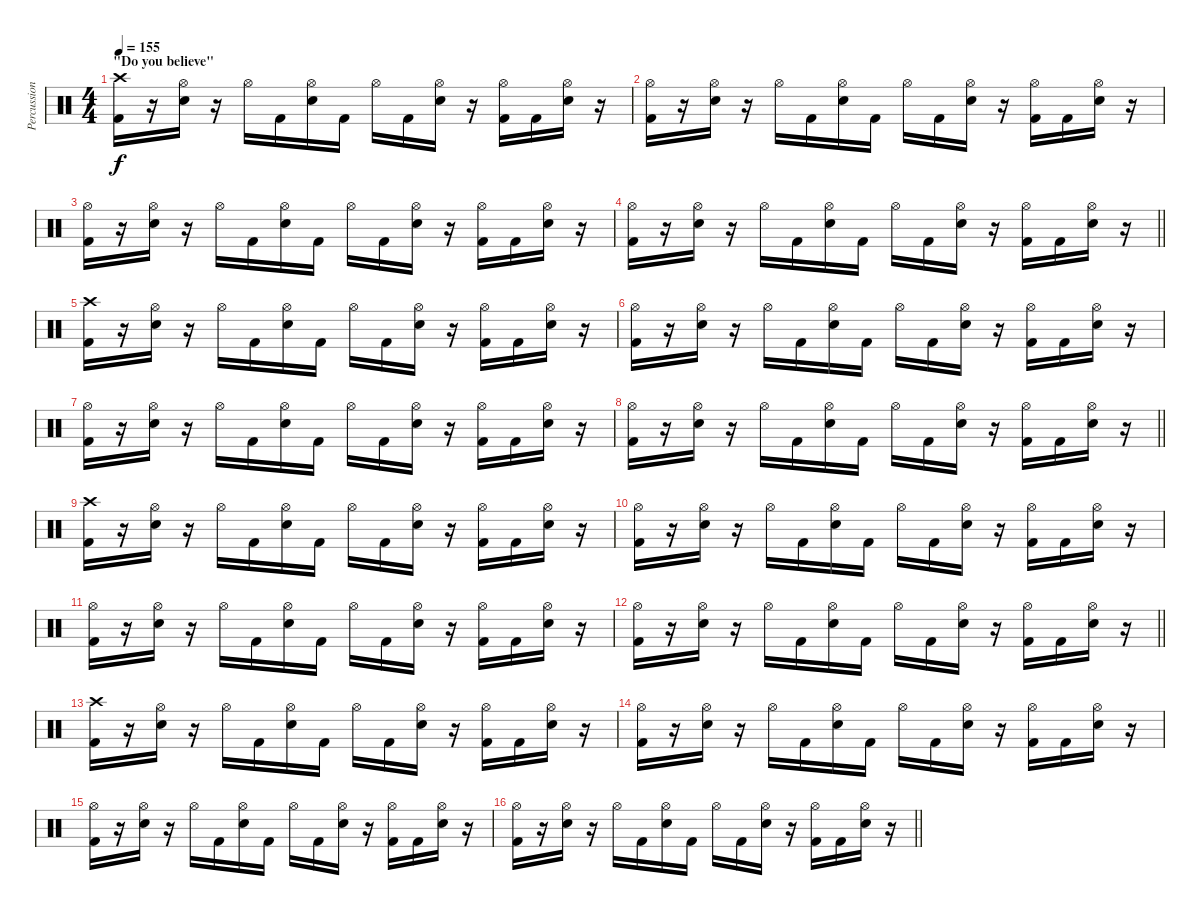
\track ("Percussion" "Percussion") {instrument percussion}
\staff {score}
\articulation defaults
\ts (4 4)
\section ("" "\"Do you believe\"")
\tempo 155
\clef neutral
\ks c
("Crash high (hit)" "Kick (hit) 2").16{dy f} r.16 ("Hi-Hat (open)" "Electric Snare (hit)").16 r.16 "Hi-Hat (open)".16 "Kick (hit) 2".16 ("Hi-Hat (open)" "Electric Snare (hit)").16 "Kick (hit) 2".16 "Hi-Hat (open)".16 "Kick (hit) 2".16 ("Hi-Hat (open)" "Electric Snare (hit)").16 r.16 ("Hi-Hat (open)" "Kick (hit) 2").16 "Kick (hit) 2".16 ("Hi-Hat (open)" "Electric Snare (hit)").16 r.16 |
("Hi-Hat (open)" "Kick (hit) 2").16 r.16 ("Hi-Hat (open)" "Electric Snare (hit)").16 r.16 "Hi-Hat (open)".16 "Kick (hit) 2".16 ("Hi-Hat (open)" "Electric Snare (hit)").16 "Kick (hit) 2".16 "Hi-Hat (open)".16 "Kick (hit) 2".16 ("Hi-Hat (open)" "Electric Snare (hit)").16 r.16 ("Hi-Hat (open)" "Kick (hit) 2").16 "Kick (hit) 2".16 ("Hi-Hat (open)" "Electric Snare (hit)").16 r.16 |
("Hi-Hat (open)" "Kick (hit) 2").16 r.16 ("Hi-Hat (open)" "Electric Snare (hit)").16 r.16 "Hi-Hat (open)".16 "Kick (hit) 2".16 ("Hi-Hat (open)" "Electric Snare (hit)").16 "Kick (hit) 2".16 "Hi-Hat (open)".16 "Kick (hit) 2".16 ("Hi-Hat (open)" "Electric Snare (hit)").16 r.16 ("Hi-Hat (open)" "Kick (hit) 2").16 "Kick (hit) 2".16 ("Hi-Hat (open)" "Electric Snare (hit)").16 r.16 |
\barLineRight lightlight
("Hi-Hat (open)" "Kick (hit) 2").16 r.16 ("Hi-Hat (open)" "Electric Snare (hit)").16 r.16 "Hi-Hat (open)".16 "Kick (hit) 2".16 ("Hi-Hat (open)" "Electric Snare (hit)").16 "Kick (hit) 2".16 "Hi-Hat (open)".16 "Kick (hit) 2".16 ("Hi-Hat (open)" "Electric Snare (hit)").16 r.16 ("Hi-Hat (open)" "Kick (hit) 2").16 "Kick (hit) 2".16 ("Hi-Hat (open)" "Electric Snare (hit)").16 r.16 |
("Crash high (hit)" "Kick (hit) 2").16 r.16 ("Hi-Hat (open)" "Electric Snare (hit)").16 r.16 "Hi-Hat (open)".16 "Kick (hit) 2".16 ("Hi-Hat (open)" "Electric Snare (hit)").16 "Kick (hit) 2".16 "Hi-Hat (open)".16 "Kick (hit) 2".16 ("Hi-Hat (open)" "Electric Snare (hit)").16 r.16 ("Hi-Hat (open)" "Kick (hit) 2").16 "Kick (hit) 2".16 ("Hi-Hat (open)" "Electric Snare (hit)").16 r.16 |
("Hi-Hat (open)" "Kick (hit) 2").16 r.16 ("Hi-Hat (open)" "Electric Snare (hit)").16 r.16 "Hi-Hat (open)".16 "Kick (hit) 2".16 ("Hi-Hat (open)" "Electric Snare (hit)").16 "Kick (hit) 2".16 "Hi-Hat (open)".16 "Kick (hit) 2".16 ("Hi-Hat (open)" "Electric Snare (hit)").16 r.16 ("Hi-Hat (open)" "Kick (hit) 2").16 "Kick (hit) 2".16 ("Hi-Hat (open)" "Electric Snare (hit)").16 r.16 |
("Hi-Hat (open)" "Kick (hit) 2").16 r.16 ("Hi-Hat (open)" "Electric Snare (hit)").16 r.16 "Hi-Hat (open)".16 "Kick (hit) 2".16 ("Hi-Hat (open)" "Electric Snare (hit)").16 "Kick (hit) 2".16 "Hi-Hat (open)".16 "Kick (hit) 2".16 ("Hi-Hat (open)" "Electric Snare (hit)").16 r.16 ("Hi-Hat (open)" "Kick (hit) 2").16 "Kick (hit) 2".16 ("Hi-Hat (open)" "Electric Snare (hit)").16 r.16 |
\barLineRight lightlight
("Hi-Hat (open)" "Kick (hit) 2").16 r.16 ("Hi-Hat (open)" "Electric Snare (hit)").16 r.16 "Hi-Hat (open)".16 "Kick (hit) 2".16 ("Hi-Hat (open)" "Electric Snare (hit)").16 "Kick (hit) 2".16 "Hi-Hat (open)".16 "Kick (hit) 2".16 ("Hi-Hat (open)" "Electric Snare (hit)").16 r.16 ("Hi-Hat (open)" "Kick (hit) 2").16 "Kick (hit) 2".16 ("Hi-Hat (open)" "Electric Snare (hit)").16 r.16 |
("Crash high (hit)" "Kick (hit) 2").16 r.16 ("Hi-Hat (open)" "Electric Snare (hit)").16 r.16 "Hi-Hat (open)".16 "Kick (hit) 2".16 ("Hi-Hat (open)" "Electric Snare (hit)").16 "Kick (hit) 2".16 "Hi-Hat (open)".16 "Kick (hit) 2".16 ("Hi-Hat (open)" "Electric Snare (hit)").16 r.16 ("Hi-Hat (open)" "Kick (hit) 2").16 "Kick (hit) 2".16 ("Hi-Hat (open)" "Electric Snare (hit)").16 r.16 |
("Hi-Hat (open)" "Kick (hit) 2").16 r.16 ("Hi-Hat (open)" "Electric Snare (hit)").16 r.16 "Hi-Hat (open)".16 "Kick (hit) 2".16 ("Hi-Hat (open)" "Electric Snare (hit)").16 "Kick (hit) 2".16 "Hi-Hat (open)".16 "Kick (hit) 2".16 ("Hi-Hat (open)" "Electric Snare (hit)").16 r.16 ("Hi-Hat (open)" "Kick (hit) 2").16 "Kick (hit) 2".16 ("Hi-Hat (open)" "Electric Snare (hit)").16 r.16 |
("Hi-Hat (open)" "Kick (hit) 2").16 r.16 ("Hi-Hat (open)" "Electric Snare (hit)").16 r.16 "Hi-Hat (open)".16 "Kick (hit) 2".16 ("Hi-Hat (open)" "Electric Snare (hit)").16 "Kick (hit) 2".16 "Hi-Hat (open)".16 "Kick (hit) 2".16 ("Hi-Hat (open)" "Electric Snare (hit)").16 r.16 ("Hi-Hat (open)" "Kick (hit) 2").16 "Kick (hit) 2".16 ("Hi-Hat (open)" "Electric Snare (hit)").16 r.16 |
\barLineRight lightlight
("Hi-Hat (open)" "Kick (hit) 2").16 r.16 ("Hi-Hat (open)" "Electric Snare (hit)").16 r.16 "Hi-Hat (open)".16 "Kick (hit) 2".16 ("Hi-Hat (open)" "Electric Snare (hit)").16 "Kick (hit) 2".16 "Hi-Hat (open)".16 "Kick (hit) 2".16 ("Hi-Hat (open)" "Electric Snare (hit)").16 r.16 ("Hi-Hat (open)" "Kick (hit) 2").16 "Kick (hit) 2".16 ("Hi-Hat (open)" "Electric Snare (hit)").16 r.16 |
("Crash high (hit)" "Kick (hit) 2").16 r.16 ("Hi-Hat (open)" "Electric Snare (hit)").16 r.16 "Hi-Hat (open)".16 "Kick (hit) 2".16 ("Hi-Hat (open)" "Electric Snare (hit)").16 "Kick (hit) 2".16 "Hi-Hat (open)".16 "Kick (hit) 2".16 ("Hi-Hat (open)" "Electric Snare (hit)").16 r.16 ("Hi-Hat (open)" "Kick (hit) 2").16 "Kick (hit) 2".16 ("Hi-Hat (open)" "Electric Snare (hit)").16 r.16 |
("Hi-Hat (open)" "Kick (hit) 2").16 r.16 ("Hi-Hat (open)" "Electric Snare (hit)").16 r.16 "Hi-Hat (open)".16 "Kick (hit) 2".16 ("Hi-Hat (open)" "Electric Snare (hit)").16 "Kick (hit) 2".16 "Hi-Hat (open)".16 "Kick (hit) 2".16 ("Hi-Hat (open)" "Electric Snare (hit)").16 r.16 ("Hi-Hat (open)" "Kick (hit) 2").16 "Kick (hit) 2".16 ("Hi-Hat (open)" "Electric Snare (hit)").16 r.16 |
("Hi-Hat (open)" "Kick (hit) 2").16 r.16 ("Hi-Hat (open)" "Electric Snare (hit)").16 r.16 "Hi-Hat (open)".16 "Kick (hit) 2".16 ("Hi-Hat (open)" "Electric Snare (hit)").16 "Kick (hit) 2".16 "Hi-Hat (open)".16 "Kick (hit) 2".16 ("Hi-Hat (open)" "Electric Snare (hit)").16 r.16 ("Hi-Hat (open)" "Kick (hit) 2").16 "Kick (hit) 2".16 ("Hi-Hat (open)" "Electric Snare (hit)").16 r.16 |
\barLineRight lightlight
("Hi-Hat (open)" "Kick (hit) 2").16 r.16 ("Hi-Hat (open)" "Electric Snare (hit)").16 r.16 "Hi-Hat (open)".16 "Kick (hit) 2".16 ("Hi-Hat (open)" "Electric Snare (hit)").16 "Kick (hit) 2".16 "Hi-Hat (open)".16 "Kick (hit) 2".16 ("Hi-Hat (open)" "Electric Snare (hit)").16 r.16 ("Hi-Hat (open)" "Kick (hit) 2").16 "Kick (hit) 2".16 ("Hi-Hat (open)" "Electric Snare (hit)").16 r.16
